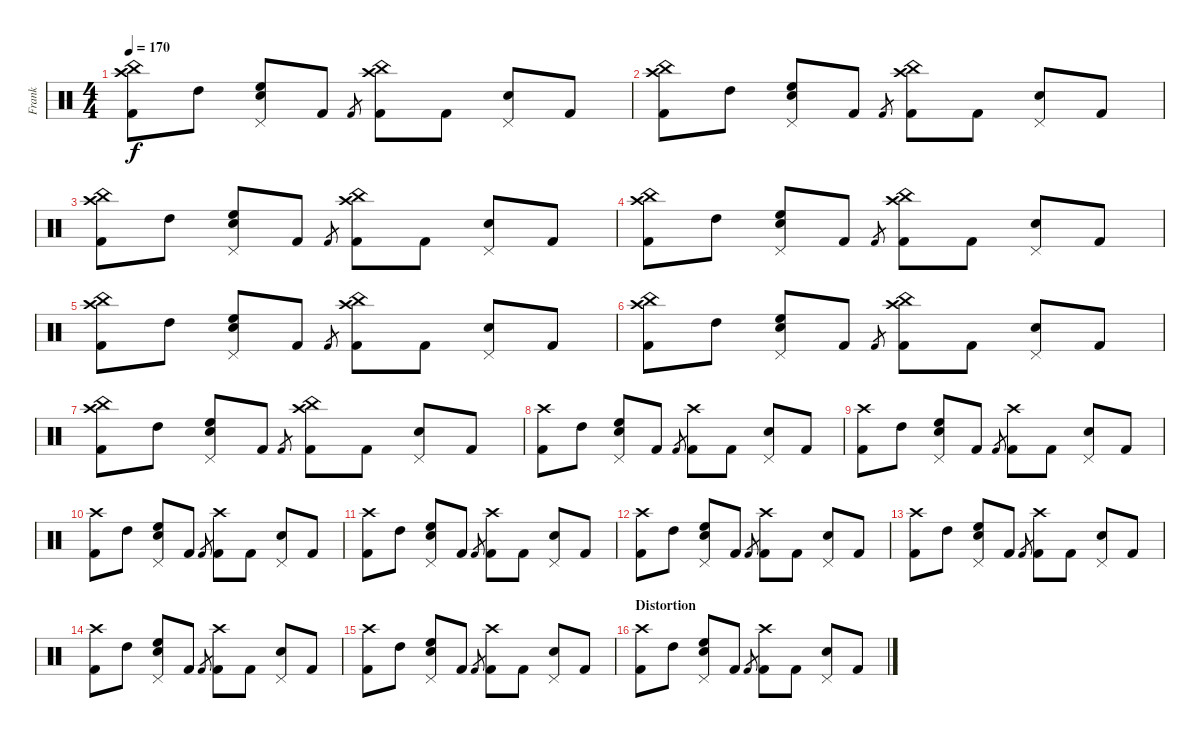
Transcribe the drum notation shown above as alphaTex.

\track ("Frank" "Frank") {instrument percussion}
\staff {score}
\articulation defaults
\ts (4 4)
\tempo 170
\clef neutral
\ks c
("Crash high (hit)" "China (hit)" "Kick (hit) 2").8{dy f} "High Tom (hit)".8 ("Pedal Hi-Hat (hit)" "High Floor Tom (hit)" "Snare (hit) 2").8 "Kick (hit) 2".8 "Kick (hit) 2".8{gr} ("Crash high (hit)" "China (hit)" "Kick (hit) 2").8 "Kick (hit) 2".8 ("Pedal Hi-Hat (hit)" "Snare (hit) 2").8 "Kick (hit) 2".8 |
("Crash high (hit)" "China (hit)" "Kick (hit) 2").8 "High Tom (hit)".8 ("Pedal Hi-Hat (hit)" "High Floor Tom (hit)" "Snare (hit) 2").8 "Kick (hit) 2".8 "Kick (hit) 2".8{gr} ("Crash high (hit)" "China (hit)" "Kick (hit) 2").8 "Kick (hit) 2".8 ("Pedal Hi-Hat (hit)" "Snare (hit) 2").8 "Kick (hit) 2".8 |
("Crash high (hit)" "China (hit)" "Kick (hit) 2").8 "High Tom (hit)".8 ("Pedal Hi-Hat (hit)" "High Floor Tom (hit)" "Snare (hit) 2").8 "Kick (hit) 2".8 "Kick (hit) 2".8{gr} ("Crash high (hit)" "China (hit)" "Kick (hit) 2").8 "Kick (hit) 2".8 ("Pedal Hi-Hat (hit)" "Snare (hit) 2").8 "Kick (hit) 2".8 |
("Crash high (hit)" "China (hit)" "Kick (hit) 2").8 "High Tom (hit)".8 ("Pedal Hi-Hat (hit)" "High Floor Tom (hit)" "Snare (hit) 2").8 "Kick (hit) 2".8 "Kick (hit) 2".8{gr} ("Crash high (hit)" "China (hit)" "Kick (hit) 2").8 "Kick (hit) 2".8 ("Pedal Hi-Hat (hit)" "Snare (hit) 2").8 "Kick (hit) 2".8 |
("Crash high (hit)" "China (hit)" "Kick (hit) 2").8 "High Tom (hit)".8 ("Pedal Hi-Hat (hit)" "High Floor Tom (hit)" "Snare (hit) 2").8 "Kick (hit) 2".8 "Kick (hit) 2".8{gr} ("Crash high (hit)" "China (hit)" "Kick (hit) 2").8 "Kick (hit) 2".8 ("Pedal Hi-Hat (hit)" "Snare (hit) 2").8 "Kick (hit) 2".8 |
("Crash high (hit)" "China (hit)" "Kick (hit) 2").8 "High Tom (hit)".8 ("Pedal Hi-Hat (hit)" "High Floor Tom (hit)" "Snare (hit) 2").8 "Kick (hit) 2".8 "Kick (hit) 2".8{gr} ("Crash high (hit)" "China (hit)" "Kick (hit) 2").8 "Kick (hit) 2".8 ("Pedal Hi-Hat (hit)" "Snare (hit) 2").8 "Kick (hit) 2".8 |
("Crash high (hit)" "China (hit)" "Kick (hit) 2").8 "High Tom (hit)".8 ("Pedal Hi-Hat (hit)" "High Floor Tom (hit)" "Snare (hit) 2").8 "Kick (hit) 2".8 "Kick (hit) 2".8{gr} ("Crash high (hit)" "China (hit)" "Kick (hit) 2").8 "Kick (hit) 2".8 ("Pedal Hi-Hat (hit)" "Snare (hit) 2").8 "Kick (hit) 2".8 |
("Crash high (hit)" "Kick (hit) 2").8 "High Tom (hit)".8 ("Pedal Hi-Hat (hit)" "High Floor Tom (hit)" "Snare (hit) 2").8 "Kick (hit) 2".8 "Kick (hit) 2".8{gr} ("Crash high (hit)" "Kick (hit) 2").8 "Kick (hit) 2".8 ("Pedal Hi-Hat (hit)" "Snare (hit) 2").8 "Kick (hit) 2".8 |
("Crash high (hit)" "Kick (hit) 2").8 "High Tom (hit)".8 ("Pedal Hi-Hat (hit)" "High Floor Tom (hit)" "Snare (hit) 2").8 "Kick (hit) 2".8 "Kick (hit) 2".8{gr} ("Crash high (hit)" "Kick (hit) 2").8 "Kick (hit) 2".8 ("Pedal Hi-Hat (hit)" "Snare (hit) 2").8 "Kick (hit) 2".8 |
("Crash high (hit)" "Kick (hit) 2").8 "High Tom (hit)".8 ("Pedal Hi-Hat (hit)" "High Floor Tom (hit)" "Snare (hit) 2").8 "Kick (hit) 2".8 "Kick (hit) 2".8{gr} ("Crash high (hit)" "Kick (hit) 2").8 "Kick (hit) 2".8 ("Pedal Hi-Hat (hit)" "Snare (hit) 2").8 "Kick (hit) 2".8 |
("Crash high (hit)" "Kick (hit) 2").8 "High Tom (hit)".8 ("Pedal Hi-Hat (hit)" "High Floor Tom (hit)" "Snare (hit) 2").8 "Kick (hit) 2".8 "Kick (hit) 2".8{gr} ("Crash high (hit)" "Kick (hit) 2").8 "Kick (hit) 2".8 ("Pedal Hi-Hat (hit)" "Snare (hit) 2").8 "Kick (hit) 2".8 |
("Crash high (hit)" "Kick (hit) 2").8 "High Tom (hit)".8 ("Pedal Hi-Hat (hit)" "High Floor Tom (hit)" "Snare (hit) 2").8 "Kick (hit) 2".8 "Kick (hit) 2".8{gr} ("Crash high (hit)" "Kick (hit) 2").8 "Kick (hit) 2".8 ("Pedal Hi-Hat (hit)" "Snare (hit) 2").8 "Kick (hit) 2".8 |
("Crash high (hit)" "Kick (hit) 2").8 "High Tom (hit)".8 ("Pedal Hi-Hat (hit)" "High Floor Tom (hit)" "Snare (hit) 2").8 "Kick (hit) 2".8 "Kick (hit) 2".8{gr} ("Crash high (hit)" "Kick (hit) 2").8 "Kick (hit) 2".8 ("Pedal Hi-Hat (hit)" "Snare (hit) 2").8 "Kick (hit) 2".8 |
("Crash high (hit)" "Kick (hit) 2").8 "High Tom (hit)".8 ("Pedal Hi-Hat (hit)" "High Floor Tom (hit)" "Snare (hit) 2").8 "Kick (hit) 2".8 "Kick (hit) 2".8{gr} ("Crash high (hit)" "Kick (hit) 2").8 "Kick (hit) 2".8 ("Pedal Hi-Hat (hit)" "Snare (hit) 2").8 "Kick (hit) 2".8 |
("Crash high (hit)" "Kick (hit) 2").8 "High Tom (hit)".8 ("Pedal Hi-Hat (hit)" "High Floor Tom (hit)" "Snare (hit) 2").8 "Kick (hit) 2".8 "Kick (hit) 2".8{gr} ("Crash high (hit)" "Kick (hit) 2").8 "Kick (hit) 2".8 ("Pedal Hi-Hat (hit)" "Snare (hit) 2").8 "Kick (hit) 2".8 |
\section ("" "Distortion")
("Crash high (hit)" "Kick (hit) 2").8 "High Tom (hit)".8 ("Pedal Hi-Hat (hit)" "High Floor Tom (hit)" "Snare (hit) 2").8 "Kick (hit) 2".8 "Kick (hit) 2".8{gr} ("Crash high (hit)" "Kick (hit) 2").8 "Kick (hit) 2".8 ("Pedal Hi-Hat (hit)" "Snare (hit) 2").8 "Kick (hit) 2".8
